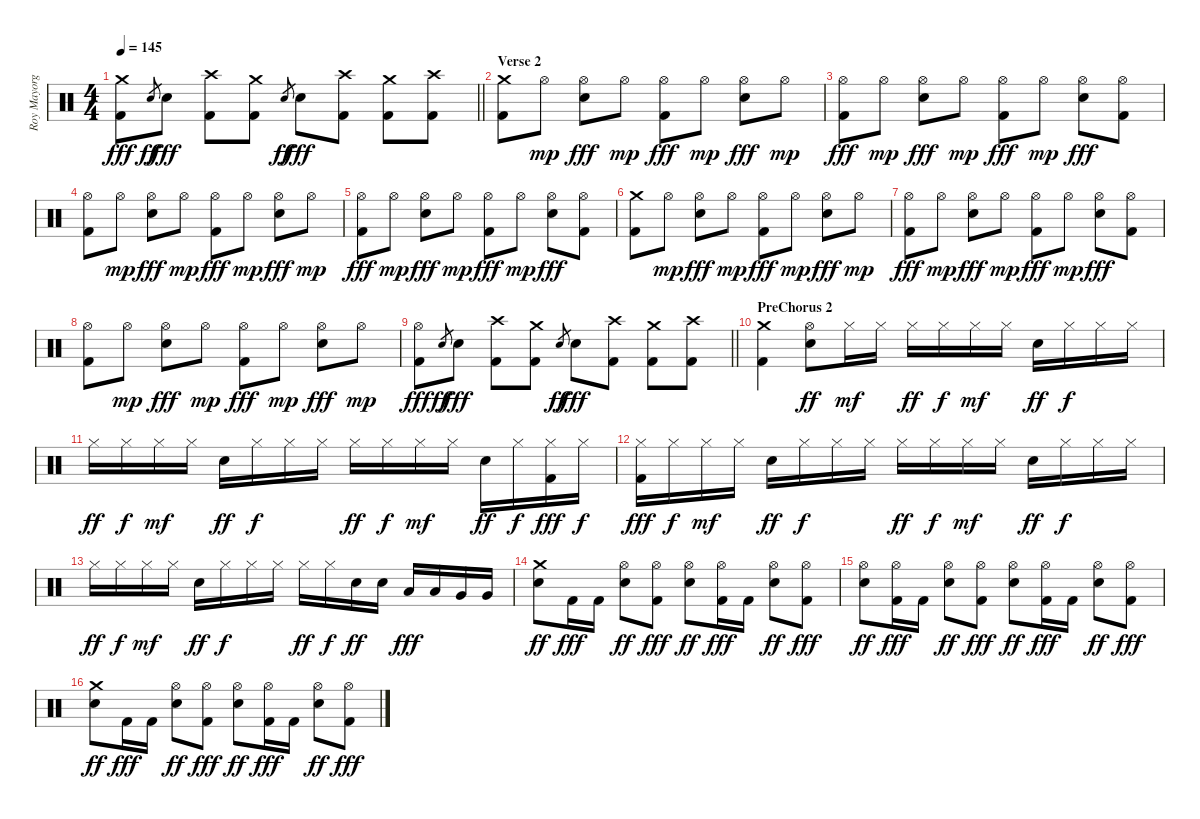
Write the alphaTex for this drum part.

\track ("Roy Mayorga" "Roy Mayorg") {instrument percussion}
\staff {score}
\articulation defaults
\ts (4 4)
\tempo 145
\clef neutral
\barLineRight lightlight
\ks c
("Crash medium (hit)" "Kick (hit) 2").8{dy fff} "Electric Snare (hit)".8{gr dy ff} "Electric Snare (hit)".8{dy fff} ("Crash high (hit)" "Kick (hit) 2").8 ("Crash medium (hit)" "Kick (hit) 2").8 "Electric Snare (hit)".8{gr dy ff} "Electric Snare (hit)".8{dy fff} ("Crash high (hit)" "Kick (hit) 2").8 ("Crash medium (hit)" "Kick (hit) 2").8 ("Crash high (hit)" "Kick (hit) 2").8 |
\section ("" "Verse 2")
("Crash medium (hit)" "Kick (hit) 2").8 "Hi-Hat (open)".8{dy mp} ("Hi-Hat (open)" "Electric Snare (hit)").8{dy fff} "Hi-Hat (open)".8{dy mp} ("Hi-Hat (open)" "Kick (hit) 2").8{dy fff} "Hi-Hat (open)".8{dy mp} ("Hi-Hat (open)" "Electric Snare (hit)").8{dy fff} "Hi-Hat (open)".8{dy mp} |
("Hi-Hat (open)" "Kick (hit) 2").8{dy fff} "Hi-Hat (open)".8{dy mp} ("Hi-Hat (open)" "Electric Snare (hit)").8{dy fff} "Hi-Hat (open)".8{dy mp} ("Hi-Hat (open)" "Kick (hit) 2").8{dy fff} "Hi-Hat (open)".8{dy mp} ("Hi-Hat (open)" "Electric Snare (hit)").8{dy fff} ("Hi-Hat (open)" "Kick (hit) 2").8 |
("Hi-Hat (open)" "Kick (hit) 2").8 "Hi-Hat (open)".8{dy mp} ("Hi-Hat (open)" "Electric Snare (hit)").8{dy fff} "Hi-Hat (open)".8{dy mp} ("Hi-Hat (open)" "Kick (hit) 2").8{dy fff} "Hi-Hat (open)".8{dy mp} ("Hi-Hat (open)" "Electric Snare (hit)").8{dy fff} "Hi-Hat (open)".8{dy mp} |
("Hi-Hat (open)" "Kick (hit) 2").8{dy fff} "Hi-Hat (open)".8{dy mp} ("Hi-Hat (open)" "Electric Snare (hit)").8{dy fff} "Hi-Hat (open)".8{dy mp} ("Hi-Hat (open)" "Kick (hit) 2").8{dy fff} "Hi-Hat (open)".8{dy mp} ("Hi-Hat (open)" "Electric Snare (hit)").8{dy fff} ("Hi-Hat (open)" "Kick (hit) 2").8 |
("Crash medium (hit)" "Kick (hit) 2").8 "Hi-Hat (open)".8{dy mp} ("Hi-Hat (open)" "Electric Snare (hit)").8{dy fff} "Hi-Hat (open)".8{dy mp} ("Hi-Hat (open)" "Kick (hit) 2").8{dy fff} "Hi-Hat (open)".8{dy mp} ("Hi-Hat (open)" "Electric Snare (hit)").8{dy fff} "Hi-Hat (open)".8{dy mp} |
("Hi-Hat (open)" "Kick (hit) 2").8{dy fff} "Hi-Hat (open)".8{dy mp} ("Hi-Hat (open)" "Electric Snare (hit)").8{dy fff} "Hi-Hat (open)".8{dy mp} ("Hi-Hat (open)" "Kick (hit) 2").8{dy fff} "Hi-Hat (open)".8{dy mp} ("Hi-Hat (open)" "Electric Snare (hit)").8{dy fff} ("Hi-Hat (open)" "Kick (hit) 2").8 |
("Hi-Hat (open)" "Kick (hit) 2").8 "Hi-Hat (open)".8{dy mp} ("Hi-Hat (open)" "Electric Snare (hit)").8{dy fff} "Hi-Hat (open)".8{dy mp} ("Hi-Hat (open)" "Kick (hit) 2").8{dy fff} "Hi-Hat (open)".8{dy mp} ("Hi-Hat (open)" "Electric Snare (hit)").8{dy fff} "Hi-Hat (open)".8{dy mp} |
\barLineRight lightlight
("Hi-Hat (open)" "Kick (hit) 2").8{dy fff} "Electric Snare (hit)".8{gr dy ff} "Electric Snare (hit)".8{dy fff} ("Crash high (hit)" "Kick (hit) 2").8 ("Crash medium (hit)" "Kick (hit) 2").8 "Electric Snare (hit)".8{gr dy ff} "Electric Snare (hit)".8{dy fff} ("Crash high (hit)" "Kick (hit) 2").8 ("Crash medium (hit)" "Kick (hit) 2").8 ("Crash high (hit)" "Kick (hit) 2").8 |
\section ("" "PreChorus 2")
("Crash medium (hit)" "Kick (hit) 2").4 ("Hi-Hat (open)" "Electric Snare (hit)").8{dy ff} "Hi-Hat (closed)".16{dy mf} "Hi-Hat (closed)".16 "Hi-Hat (closed)".16{dy ff} "Hi-Hat (closed)".16{dy f} "Hi-Hat (closed)".16{dy mf} "Hi-Hat (closed)".16 "Electric Snare (hit)".16{dy ff} "Hi-Hat (closed)".16{dy f} "Hi-Hat (closed)".16 "Hi-Hat (closed)".16 |
"Hi-Hat (closed)".16{dy ff} "Hi-Hat (closed)".16{dy f} "Hi-Hat (closed)".16{dy mf} "Hi-Hat (closed)".16 "Electric Snare (hit)".16{dy ff} "Hi-Hat (closed)".16{dy f} "Hi-Hat (closed)".16 "Hi-Hat (closed)".16 "Hi-Hat (closed)".16{dy ff} "Hi-Hat (closed)".16{dy f} "Hi-Hat (closed)".16{dy mf} "Hi-Hat (closed)".16 "Electric Snare (hit)".16{dy ff} "Hi-Hat (closed)".16{dy f} ("Hi-Hat (closed)" "Kick (hit) 2").16{dy fff} "Hi-Hat (closed)".16{dy f} |
("Hi-Hat (closed)" "Kick (hit) 2").16{dy fff} "Hi-Hat (closed)".16{dy f} "Hi-Hat (closed)".16{dy mf} "Hi-Hat (closed)".16 "Electric Snare (hit)".16{dy ff} "Hi-Hat (closed)".16{dy f} "Hi-Hat (closed)".16 "Hi-Hat (closed)".16 "Hi-Hat (closed)".16{dy ff} "Hi-Hat (closed)".16{dy f} "Hi-Hat (closed)".16{dy mf} "Hi-Hat (closed)".16 "Electric Snare (hit)".16{dy ff} "Hi-Hat (closed)".16{dy f} "Hi-Hat (closed)".16 "Hi-Hat (closed)".16 |
"Hi-Hat (closed)".16{dy ff} "Hi-Hat (closed)".16{dy f} "Hi-Hat (closed)".16{dy mf} "Hi-Hat (closed)".16 "Electric Snare (hit)".16{dy ff} "Hi-Hat (closed)".16{dy f} "Hi-Hat (closed)".16 "Hi-Hat (closed)".16 "Hi-Hat (closed)".16{dy ff} "Hi-Hat (closed)".16{dy f} "Electric Snare (hit)".16{dy ff} "Electric Snare (hit)".16 "Low Tom (hit)".16{dy fff} "Low Tom (hit)".16 "Very Low Tom (hit)".16 "Very Low Tom (hit)".16 |
("Crash medium (hit)" "Electric Snare (hit)").8{dy ff} "Kick (hit) 2".16{dy fff} "Kick (hit) 2".16 ("Hi-Hat (open)" "Electric Snare (hit)").8{dy ff} ("Hi-Hat (open)" "Kick (hit) 2").8{dy fff} ("Hi-Hat (open)" "Electric Snare (hit)").8{dy ff} ("Hi-Hat (open)" "Kick (hit) 2").16{dy fff} "Kick (hit) 2".16 ("Hi-Hat (open)" "Electric Snare (hit)").8{dy ff} ("Hi-Hat (open)" "Kick (hit) 2").8{dy fff} |
("Hi-Hat (open)" "Electric Snare (hit)").8{dy ff} ("Hi-Hat (open)" "Kick (hit) 2").16{dy fff} "Kick (hit) 2".16 ("Hi-Hat (open)" "Electric Snare (hit)").8{dy ff} ("Hi-Hat (open)" "Kick (hit) 2").8{dy fff} ("Hi-Hat (open)" "Electric Snare (hit)").8{dy ff} ("Hi-Hat (open)" "Kick (hit) 2").16{dy fff} "Kick (hit) 2".16 ("Hi-Hat (open)" "Electric Snare (hit)").8{dy ff} ("Hi-Hat (open)" "Kick (hit) 2").8{dy fff} |
("Crash medium (hit)" "Electric Snare (hit)").8{dy ff} "Kick (hit) 2".16{dy fff} "Kick (hit) 2".16 ("Hi-Hat (open)" "Electric Snare (hit)").8{dy ff} ("Hi-Hat (open)" "Kick (hit) 2").8{dy fff} ("Hi-Hat (open)" "Electric Snare (hit)").8{dy ff} ("Hi-Hat (open)" "Kick (hit) 2").16{dy fff} "Kick (hit) 2".16 ("Hi-Hat (open)" "Electric Snare (hit)").8{dy ff} ("Hi-Hat (open)" "Kick (hit) 2").8{dy fff}
